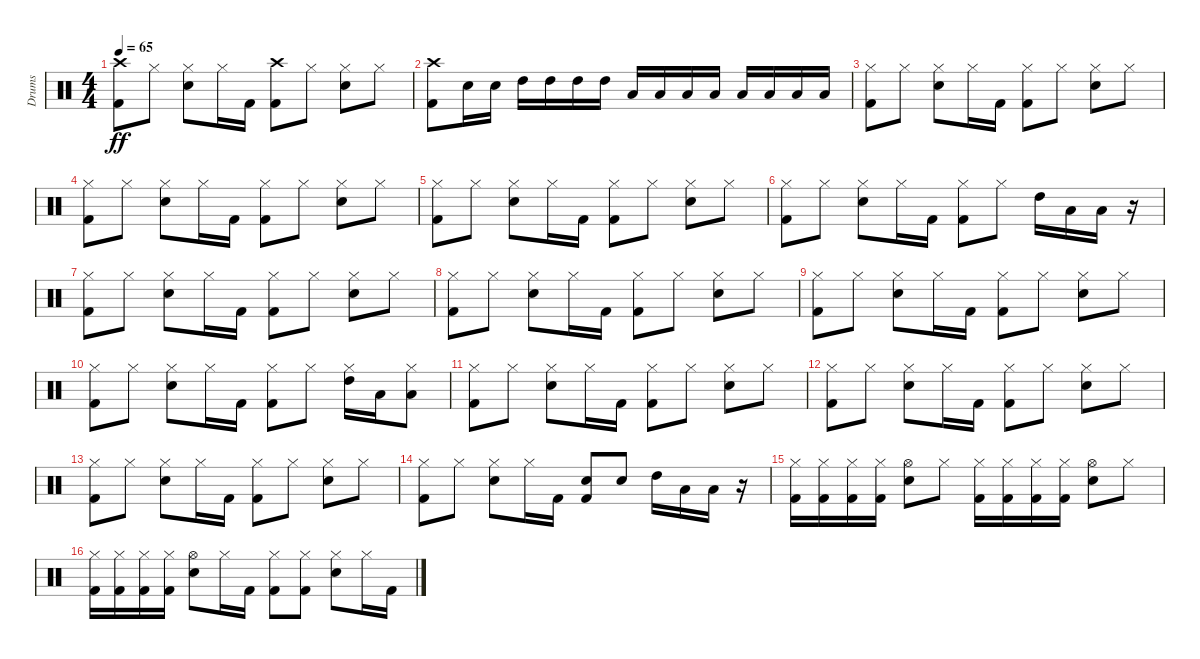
\track ("Drums" "Drums") {instrument percussion}
\staff {score}
\articulation defaults
\ts (4 4)
\tempo 65
\clef neutral
\ks c
("Crash high (hit)" "Kick (hit) 2").8{dy ff} "Hi-Hat (closed)".8 ("Snare (hit) 2" "Hi-Hat (closed)").8 "Hi-Hat (closed)".16 "Kick (hit) 2".16 ("Crash high (hit)" "Kick (hit) 2").8 "Hi-Hat (closed)".8 ("Hi-Hat (closed)" "Snare (hit) 2").8 "Hi-Hat (closed)".8 |
("Crash high (hit)" "Kick (hit) 2").8 "Snare (hit) 2".16 "Snare (hit) 2".16 "High Tom (hit)".16 "High Tom (hit)".16 "High Tom (hit)".16 "High Tom (hit)".16 "Low Tom (hit)".16 "Low Tom (hit)".16 "Low Tom (hit)".16 "Low Tom (hit)".16 "Low Floor Tom (hit)".16 "Low Floor Tom (hit)".16 "Low Floor Tom (hit)".16 "Low Floor Tom (hit)".16 |
("Hi-Hat (closed)" "Kick (hit) 2").8 "Hi-Hat (closed)".8 ("Snare (hit) 2" "Hi-Hat (closed)").8 "Hi-Hat (closed)".16 "Kick (hit) 2".16 ("Hi-Hat (closed)" "Kick (hit) 2").8 "Hi-Hat (closed)".8 ("Hi-Hat (closed)" "Snare (hit) 2").8 "Hi-Hat (closed)".8 |
("Hi-Hat (closed)" "Kick (hit) 2").8 "Hi-Hat (closed)".8 ("Snare (hit) 2" "Hi-Hat (closed)").8 "Hi-Hat (closed)".16 "Kick (hit) 2".16 ("Hi-Hat (closed)" "Kick (hit) 2").8 "Hi-Hat (closed)".8 ("Hi-Hat (closed)" "Snare (hit) 2").8 "Hi-Hat (closed)".8 |
("Hi-Hat (closed)" "Kick (hit) 2").8 "Hi-Hat (closed)".8 ("Snare (hit) 2" "Hi-Hat (closed)").8 "Hi-Hat (closed)".16 "Kick (hit) 2".16 ("Hi-Hat (closed)" "Kick (hit) 2").8 "Hi-Hat (closed)".8 ("Hi-Hat (closed)" "Snare (hit) 2").8 "Hi-Hat (closed)".8 |
("Hi-Hat (closed)" "Kick (hit) 2").8 "Hi-Hat (closed)".8 ("Snare (hit) 2" "Hi-Hat (closed)").8 "Hi-Hat (closed)".16 "Kick (hit) 2".16 ("Hi-Hat (closed)" "Kick (hit) 2").8 "Hi-Hat (closed)".8 "High Tom (hit)".16 "Low Tom (hit)".16 "Low Floor Tom (hit)".16 r.16 |
("Hi-Hat (closed)" "Kick (hit) 2").8 "Hi-Hat (closed)".8 ("Snare (hit) 2" "Hi-Hat (closed)").8 "Hi-Hat (closed)".16 "Kick (hit) 2".16 ("Hi-Hat (closed)" "Kick (hit) 2").8 "Hi-Hat (closed)".8 ("Hi-Hat (closed)" "Snare (hit) 2").8 "Hi-Hat (closed)".8 |
("Hi-Hat (closed)" "Kick (hit) 2").8 "Hi-Hat (closed)".8 ("Snare (hit) 2" "Hi-Hat (closed)").8 "Hi-Hat (closed)".16 "Kick (hit) 2".16 ("Hi-Hat (closed)" "Kick (hit) 2").8 "Hi-Hat (closed)".8 ("Hi-Hat (closed)" "Snare (hit) 2").8 "Hi-Hat (closed)".8 |
("Hi-Hat (closed)" "Kick (hit) 2").8 "Hi-Hat (closed)".8 ("Snare (hit) 2" "Hi-Hat (closed)").8 "Hi-Hat (closed)".16 "Kick (hit) 2".16 ("Hi-Hat (closed)" "Kick (hit) 2").8 "Hi-Hat (closed)".8 ("Hi-Hat (closed)" "Snare (hit) 2").8 "Hi-Hat (closed)".8 |
("Hi-Hat (closed)" "Kick (hit) 2").8 "Hi-Hat (closed)".8 ("Snare (hit) 2" "Hi-Hat (closed)").8 "Hi-Hat (closed)".16 "Kick (hit) 2".16 ("Hi-Hat (closed)" "Kick (hit) 2").8 "Hi-Hat (closed)".8 ("High Tom (hit)" "Hi-Hat (closed)").16 "Low Tom (hit)".16 ("Low Floor Tom (hit)" "Hi-Hat (closed)").8 |
("Hi-Hat (closed)" "Kick (hit) 2").8 "Hi-Hat (closed)".8 ("Snare (hit) 2" "Hi-Hat (closed)").8 "Hi-Hat (closed)".16 "Kick (hit) 2".16 ("Hi-Hat (closed)" "Kick (hit) 2").8 "Hi-Hat (closed)".8 ("Hi-Hat (closed)" "Snare (hit) 2").8 "Hi-Hat (closed)".8 |
("Hi-Hat (closed)" "Kick (hit) 2").8 "Hi-Hat (closed)".8 ("Snare (hit) 2" "Hi-Hat (closed)").8 "Hi-Hat (closed)".16 "Kick (hit) 2".16 ("Hi-Hat (closed)" "Kick (hit) 2").8 "Hi-Hat (closed)".8 ("Hi-Hat (closed)" "Snare (hit) 2").8 "Hi-Hat (closed)".8 |
("Hi-Hat (closed)" "Kick (hit) 2").8 "Hi-Hat (closed)".8 ("Snare (hit) 2" "Hi-Hat (closed)").8 "Hi-Hat (closed)".16 "Kick (hit) 2".16 ("Hi-Hat (closed)" "Kick (hit) 2").8 "Hi-Hat (closed)".8 ("Hi-Hat (closed)" "Snare (hit) 2").8 "Hi-Hat (closed)".8 |
("Hi-Hat (closed)" "Kick (hit) 2").8 "Hi-Hat (closed)".8 ("Snare (hit) 2" "Hi-Hat (closed)").8 "Hi-Hat (closed)".16 "Kick (hit) 2".16 ("Electric Snare (hit)" "Kick (hit) 2").8 "Electric Snare (hit)".8 "High Tom (hit)".16 "Low Tom (hit)".16 "Low Floor Tom (hit)".16 r.16 |
("Kick (hit) 2" "Hi-Hat (closed)").16 ("Kick (hit) 2" "Hi-Hat (closed)").16 ("Kick (hit) 2" "Hi-Hat (closed)").16 ("Kick (hit) 2" "Hi-Hat (closed)").16 ("Hi-Hat (open)" "Snare (hit) 2").8 "Hi-Hat (closed)".8 ("Kick (hit) 2" "Hi-Hat (closed)").16 ("Kick (hit) 2" "Hi-Hat (closed)").16 ("Kick (hit) 2" "Hi-Hat (closed)").16 ("Kick (hit) 2" "Hi-Hat (closed)").16 ("Hi-Hat (open)" "Snare (hit) 2").8 "Hi-Hat (closed)".8 |
("Kick (hit) 2" "Hi-Hat (closed)").16 ("Kick (hit) 2" "Hi-Hat (closed)").16 ("Kick (hit) 2" "Hi-Hat (closed)").16 ("Kick (hit) 2" "Hi-Hat (closed)").16 ("Hi-Hat (open)" "Snare (hit) 2").8 "Hi-Hat (closed)".16 "Kick (hit) 2".16 ("Hi-Hat (closed)" "Kick (hit) 2").8 ("Hi-Hat (closed)" "Kick (hit) 2").8 ("Snare (hit) 2" "Hi-Hat (closed)").8 "Hi-Hat (closed)".16 "Kick (hit) 2".16
